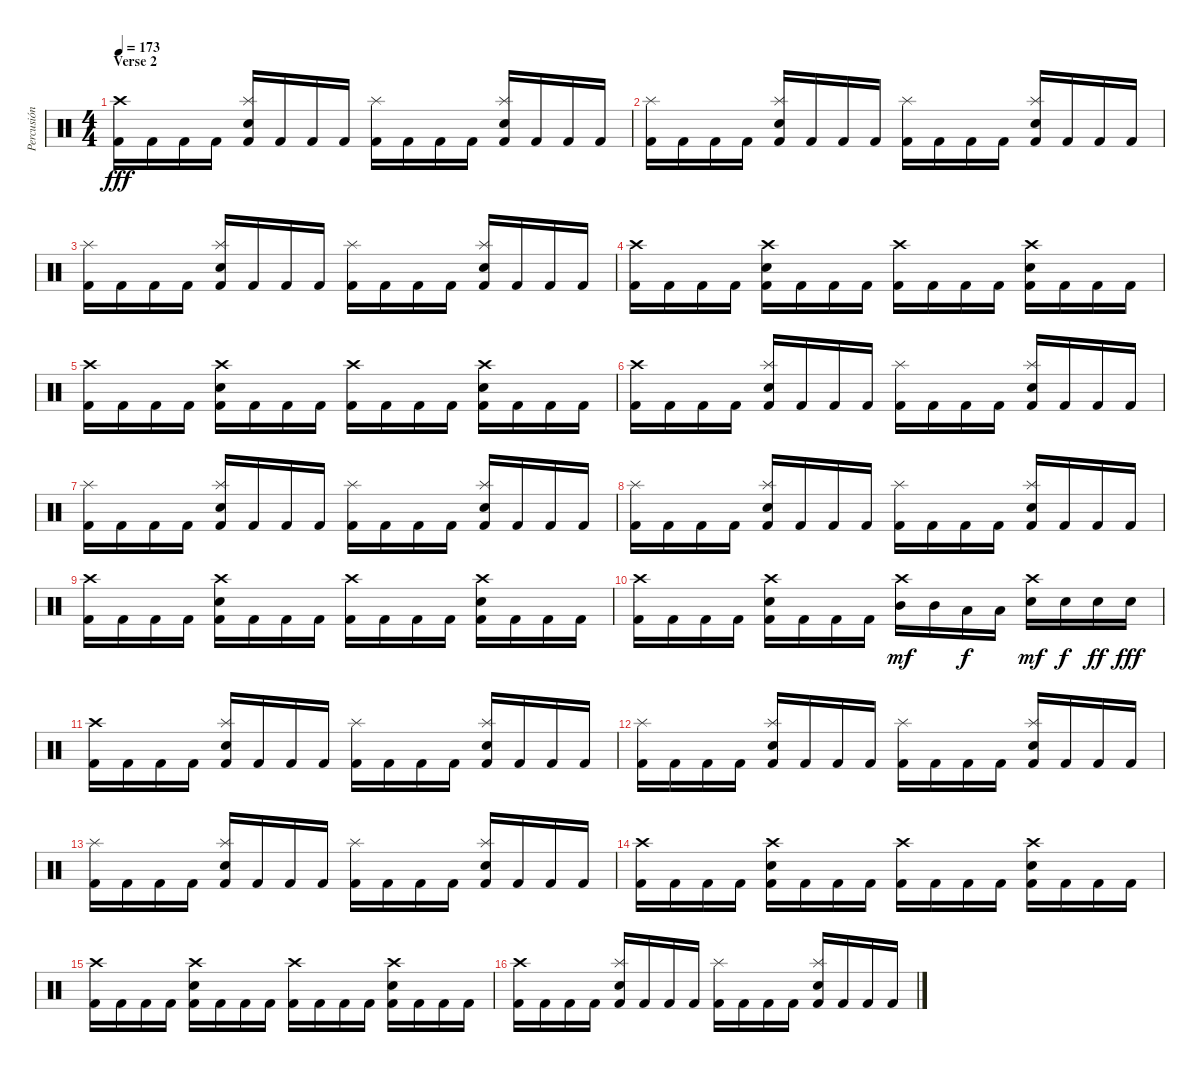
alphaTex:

\track ("Percusión" "Percusión") {instrument percussion}
\staff {score}
\articulation defaults
\ts (4 4)
\section ("" "Verse 2")
\tempo 173
\clef neutral
\ks c
("Crash high (hit)" "Kick (hit) 2").16{dy fff} "Kick (hit) 2".16 "Kick (hit) 2".16 "Kick (hit) 2".16 ("Splash (hit)" "Electric Snare (hit)" "Kick (hit) 2").16 "Kick (hit) 2".16 "Kick (hit) 2".16 "Kick (hit) 2".16 ("Splash (hit)" "Kick (hit) 2").16 "Kick (hit) 2".16 "Kick (hit) 2".16 "Kick (hit) 2".16 ("Splash (hit)" "Electric Snare (hit)" "Kick (hit) 2").16 "Kick (hit) 2".16 "Kick (hit) 2".16 "Kick (hit) 2".16 |
("Splash (hit)" "Kick (hit) 2").16 "Kick (hit) 2".16 "Kick (hit) 2".16 "Kick (hit) 2".16 ("Splash (hit)" "Electric Snare (hit)" "Kick (hit) 2").16 "Kick (hit) 2".16 "Kick (hit) 2".16 "Kick (hit) 2".16 ("Splash (hit)" "Kick (hit) 2").16 "Kick (hit) 2".16 "Kick (hit) 2".16 "Kick (hit) 2".16 ("Splash (hit)" "Electric Snare (hit)" "Kick (hit) 2").16 "Kick (hit) 2".16 "Kick (hit) 2".16 "Kick (hit) 2".16 |
("Splash (hit)" "Kick (hit) 2").16 "Kick (hit) 2".16 "Kick (hit) 2".16 "Kick (hit) 2".16 ("Splash (hit)" "Electric Snare (hit)" "Kick (hit) 2").16 "Kick (hit) 2".16 "Kick (hit) 2".16 "Kick (hit) 2".16 ("Splash (hit)" "Kick (hit) 2").16 "Kick (hit) 2".16 "Kick (hit) 2".16 "Kick (hit) 2".16 ("Splash (hit)" "Electric Snare (hit)" "Kick (hit) 2").16 "Kick (hit) 2".16 "Kick (hit) 2".16 "Kick (hit) 2".16 |
("Crash high (hit)" "Kick (hit) 2").16 "Kick (hit) 2".16 "Kick (hit) 2".16 "Kick (hit) 2".16 ("Crash high (hit)" "Electric Snare (hit)" "Kick (hit) 2").16 "Kick (hit) 2".16 "Kick (hit) 2".16 "Kick (hit) 2".16 ("Crash high (hit)" "Kick (hit) 2").16 "Kick (hit) 2".16 "Kick (hit) 2".16 "Kick (hit) 2".16 ("Crash high (hit)" "Electric Snare (hit)" "Kick (hit) 2").16 "Kick (hit) 2".16 "Kick (hit) 2".16 "Kick (hit) 2".16 |
("Crash high (hit)" "Kick (hit) 2").16 "Kick (hit) 2".16 "Kick (hit) 2".16 "Kick (hit) 2".16 ("Crash high (hit)" "Electric Snare (hit)" "Kick (hit) 2").16 "Kick (hit) 2".16 "Kick (hit) 2".16 "Kick (hit) 2".16 ("Crash high (hit)" "Kick (hit) 2").16 "Kick (hit) 2".16 "Kick (hit) 2".16 "Kick (hit) 2".16 ("Crash high (hit)" "Electric Snare (hit)" "Kick (hit) 2").16 "Kick (hit) 2".16 "Kick (hit) 2".16 "Kick (hit) 2".16 |
("Crash high (hit)" "Kick (hit) 2").16 "Kick (hit) 2".16 "Kick (hit) 2".16 "Kick (hit) 2".16 ("Splash (hit)" "Electric Snare (hit)" "Kick (hit) 2").16 "Kick (hit) 2".16 "Kick (hit) 2".16 "Kick (hit) 2".16 ("Splash (hit)" "Kick (hit) 2").16 "Kick (hit) 2".16 "Kick (hit) 2".16 "Kick (hit) 2".16 ("Splash (hit)" "Electric Snare (hit)" "Kick (hit) 2").16 "Kick (hit) 2".16 "Kick (hit) 2".16 "Kick (hit) 2".16 |
("Splash (hit)" "Kick (hit) 2").16 "Kick (hit) 2".16 "Kick (hit) 2".16 "Kick (hit) 2".16 ("Splash (hit)" "Electric Snare (hit)" "Kick (hit) 2").16 "Kick (hit) 2".16 "Kick (hit) 2".16 "Kick (hit) 2".16 ("Splash (hit)" "Kick (hit) 2").16 "Kick (hit) 2".16 "Kick (hit) 2".16 "Kick (hit) 2".16 ("Splash (hit)" "Electric Snare (hit)" "Kick (hit) 2").16 "Kick (hit) 2".16 "Kick (hit) 2".16 "Kick (hit) 2".16 |
("Splash (hit)" "Kick (hit) 2").16 "Kick (hit) 2".16 "Kick (hit) 2".16 "Kick (hit) 2".16 ("Splash (hit)" "Electric Snare (hit)" "Kick (hit) 2").16 "Kick (hit) 2".16 "Kick (hit) 2".16 "Kick (hit) 2".16 ("Splash (hit)" "Kick (hit) 2").16 "Kick (hit) 2".16 "Kick (hit) 2".16 "Kick (hit) 2".16 ("Splash (hit)" "Electric Snare (hit)" "Kick (hit) 2").16 "Kick (hit) 2".16 "Kick (hit) 2".16 "Kick (hit) 2".16 |
("Crash high (hit)" "Kick (hit) 2").16 "Kick (hit) 2".16 "Kick (hit) 2".16 "Kick (hit) 2".16 ("Crash high (hit)" "Electric Snare (hit)" "Kick (hit) 2").16 "Kick (hit) 2".16 "Kick (hit) 2".16 "Kick (hit) 2".16 ("Crash high (hit)" "Kick (hit) 2").16 "Kick (hit) 2".16 "Kick (hit) 2".16 "Kick (hit) 2".16 ("Crash high (hit)" "Electric Snare (hit)" "Kick (hit) 2").16 "Kick (hit) 2".16 "Kick (hit) 2".16 "Kick (hit) 2".16 |
("Crash high (hit)" "Kick (hit) 2").16 "Kick (hit) 2".16 "Kick (hit) 2".16 "Kick (hit) 2".16 ("Crash high (hit)" "Electric Snare (hit)" "Kick (hit) 2").16 "Kick (hit) 2".16 "Kick (hit) 2".16 "Kick (hit) 2".16 ("Crash high (hit)" "Mid Tom (hit)").16{dy mf} "Mid Tom (hit)".16 "Low Tom (hit)".16{dy f} "Low Tom (hit)".16 ("Crash high (hit)" "Electric Snare (hit)").16{dy mf} "Electric Snare (hit)".16{dy f} "Electric Snare (hit)".16{dy ff} "Electric Snare (hit)".16{dy fff} |
("Crash high (hit)" "Kick (hit) 2").16 "Kick (hit) 2".16 "Kick (hit) 2".16 "Kick (hit) 2".16 ("Splash (hit)" "Electric Snare (hit)" "Kick (hit) 2").16 "Kick (hit) 2".16 "Kick (hit) 2".16 "Kick (hit) 2".16 ("Splash (hit)" "Kick (hit) 2").16 "Kick (hit) 2".16 "Kick (hit) 2".16 "Kick (hit) 2".16 ("Splash (hit)" "Electric Snare (hit)" "Kick (hit) 2").16 "Kick (hit) 2".16 "Kick (hit) 2".16 "Kick (hit) 2".16 |
("Splash (hit)" "Kick (hit) 2").16 "Kick (hit) 2".16 "Kick (hit) 2".16 "Kick (hit) 2".16 ("Splash (hit)" "Electric Snare (hit)" "Kick (hit) 2").16 "Kick (hit) 2".16 "Kick (hit) 2".16 "Kick (hit) 2".16 ("Splash (hit)" "Kick (hit) 2").16 "Kick (hit) 2".16 "Kick (hit) 2".16 "Kick (hit) 2".16 ("Splash (hit)" "Electric Snare (hit)" "Kick (hit) 2").16 "Kick (hit) 2".16 "Kick (hit) 2".16 "Kick (hit) 2".16 |
("Splash (hit)" "Kick (hit) 2").16 "Kick (hit) 2".16 "Kick (hit) 2".16 "Kick (hit) 2".16 ("Splash (hit)" "Electric Snare (hit)" "Kick (hit) 2").16 "Kick (hit) 2".16 "Kick (hit) 2".16 "Kick (hit) 2".16 ("Splash (hit)" "Kick (hit) 2").16 "Kick (hit) 2".16 "Kick (hit) 2".16 "Kick (hit) 2".16 ("Splash (hit)" "Electric Snare (hit)" "Kick (hit) 2").16 "Kick (hit) 2".16 "Kick (hit) 2".16 "Kick (hit) 2".16 |
("Crash high (hit)" "Kick (hit) 2").16 "Kick (hit) 2".16 "Kick (hit) 2".16 "Kick (hit) 2".16 ("Crash high (hit)" "Electric Snare (hit)" "Kick (hit) 2").16 "Kick (hit) 2".16 "Kick (hit) 2".16 "Kick (hit) 2".16 ("Crash high (hit)" "Kick (hit) 2").16 "Kick (hit) 2".16 "Kick (hit) 2".16 "Kick (hit) 2".16 ("Crash high (hit)" "Electric Snare (hit)" "Kick (hit) 2").16 "Kick (hit) 2".16 "Kick (hit) 2".16 "Kick (hit) 2".16 |
("Crash high (hit)" "Kick (hit) 2").16 "Kick (hit) 2".16 "Kick (hit) 2".16 "Kick (hit) 2".16 ("Crash high (hit)" "Electric Snare (hit)" "Kick (hit) 2").16 "Kick (hit) 2".16 "Kick (hit) 2".16 "Kick (hit) 2".16 ("Crash high (hit)" "Kick (hit) 2").16 "Kick (hit) 2".16 "Kick (hit) 2".16 "Kick (hit) 2".16 ("Crash high (hit)" "Electric Snare (hit)" "Kick (hit) 2").16 "Kick (hit) 2".16 "Kick (hit) 2".16 "Kick (hit) 2".16 |
("Crash high (hit)" "Kick (hit) 2").16 "Kick (hit) 2".16 "Kick (hit) 2".16 "Kick (hit) 2".16 ("Splash (hit)" "Electric Snare (hit)" "Kick (hit) 2").16 "Kick (hit) 2".16 "Kick (hit) 2".16 "Kick (hit) 2".16 ("Splash (hit)" "Kick (hit) 2").16 "Kick (hit) 2".16 "Kick (hit) 2".16 "Kick (hit) 2".16 ("Splash (hit)" "Electric Snare (hit)" "Kick (hit) 2").16 "Kick (hit) 2".16 "Kick (hit) 2".16 "Kick (hit) 2".16
